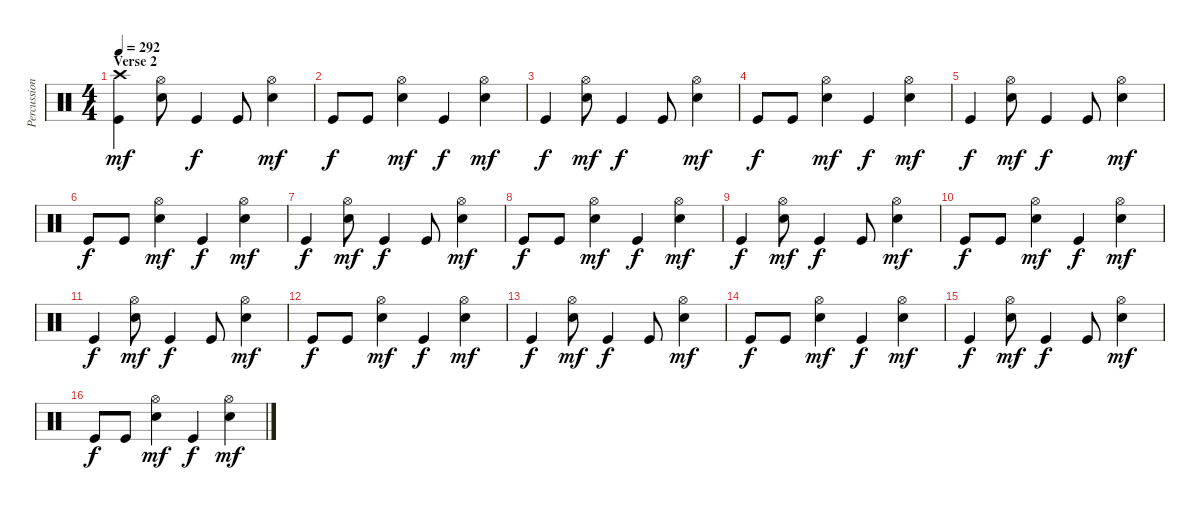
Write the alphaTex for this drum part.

\track ("Percussion" "Percussion") {instrument percussion}
\staff {score}
\articulation defaults
\ts (4 4)
\section ("" "Verse 2")
\tempo 292
\clef neutral
\ks c
("Crash high (hit)" "Kick (hit)").4{dy mf} ("Hi-Hat (open)" "Electric Snare (hit)").8 "Kick (hit)".4{dy f} "Kick (hit)".8 ("Hi-Hat (open)" "Electric Snare (hit)").4{dy mf} |
"Kick (hit)".8{dy f} "Kick (hit)".8 ("Hi-Hat (open)" "Electric Snare (hit)").4{dy mf} "Kick (hit)".4{dy f} ("Hi-Hat (open)" "Electric Snare (hit)").4{dy mf} |
"Kick (hit)".4{dy f} ("Hi-Hat (open)" "Electric Snare (hit)").8{dy mf} "Kick (hit)".4{dy f} "Kick (hit)".8 ("Hi-Hat (open)" "Electric Snare (hit)").4{dy mf} |
"Kick (hit)".8{dy f} "Kick (hit)".8 ("Hi-Hat (open)" "Electric Snare (hit)").4{dy mf} "Kick (hit)".4{dy f} ("Hi-Hat (open)" "Electric Snare (hit)").4{dy mf} |
"Kick (hit)".4{dy f} ("Hi-Hat (open)" "Electric Snare (hit)").8{dy mf} "Kick (hit)".4{dy f} "Kick (hit)".8 ("Hi-Hat (open)" "Electric Snare (hit)").4{dy mf} |
"Kick (hit)".8{dy f} "Kick (hit)".8 ("Hi-Hat (open)" "Electric Snare (hit)").4{dy mf} "Kick (hit)".4{dy f} ("Hi-Hat (open)" "Electric Snare (hit)").4{dy mf} |
"Kick (hit)".4{dy f} ("Hi-Hat (open)" "Electric Snare (hit)").8{dy mf} "Kick (hit)".4{dy f} "Kick (hit)".8 ("Hi-Hat (open)" "Electric Snare (hit)").4{dy mf} |
"Kick (hit)".8{dy f} "Kick (hit)".8 ("Hi-Hat (open)" "Electric Snare (hit)").4{dy mf} "Kick (hit)".4{dy f} ("Hi-Hat (open)" "Electric Snare (hit)").4{dy mf} |
"Kick (hit)".4{dy f} ("Hi-Hat (open)" "Electric Snare (hit)").8{dy mf} "Kick (hit)".4{dy f} "Kick (hit)".8 ("Hi-Hat (open)" "Electric Snare (hit)").4{dy mf} |
"Kick (hit)".8{dy f} "Kick (hit)".8 ("Hi-Hat (open)" "Electric Snare (hit)").4{dy mf} "Kick (hit)".4{dy f} ("Hi-Hat (open)" "Electric Snare (hit)").4{dy mf} |
"Kick (hit)".4{dy f} ("Hi-Hat (open)" "Electric Snare (hit)").8{dy mf} "Kick (hit)".4{dy f} "Kick (hit)".8 ("Hi-Hat (open)" "Electric Snare (hit)").4{dy mf} |
"Kick (hit)".8{dy f} "Kick (hit)".8 ("Hi-Hat (open)" "Electric Snare (hit)").4{dy mf} "Kick (hit)".4{dy f} ("Hi-Hat (open)" "Electric Snare (hit)").4{dy mf} |
"Kick (hit)".4{dy f} ("Hi-Hat (open)" "Electric Snare (hit)").8{dy mf} "Kick (hit)".4{dy f} "Kick (hit)".8 ("Hi-Hat (open)" "Electric Snare (hit)").4{dy mf} |
"Kick (hit)".8{dy f} "Kick (hit)".8 ("Hi-Hat (open)" "Electric Snare (hit)").4{dy mf} "Kick (hit)".4{dy f} ("Hi-Hat (open)" "Electric Snare (hit)").4{dy mf} |
"Kick (hit)".4{dy f} ("Hi-Hat (open)" "Electric Snare (hit)").8{dy mf} "Kick (hit)".4{dy f} "Kick (hit)".8 ("Hi-Hat (open)" "Electric Snare (hit)").4{dy mf} |
"Kick (hit)".8{dy f} "Kick (hit)".8 ("Hi-Hat (open)" "Electric Snare (hit)").4{dy mf} "Kick (hit)".4{dy f} ("Hi-Hat (open)" "Electric Snare (hit)").4{dy mf}
